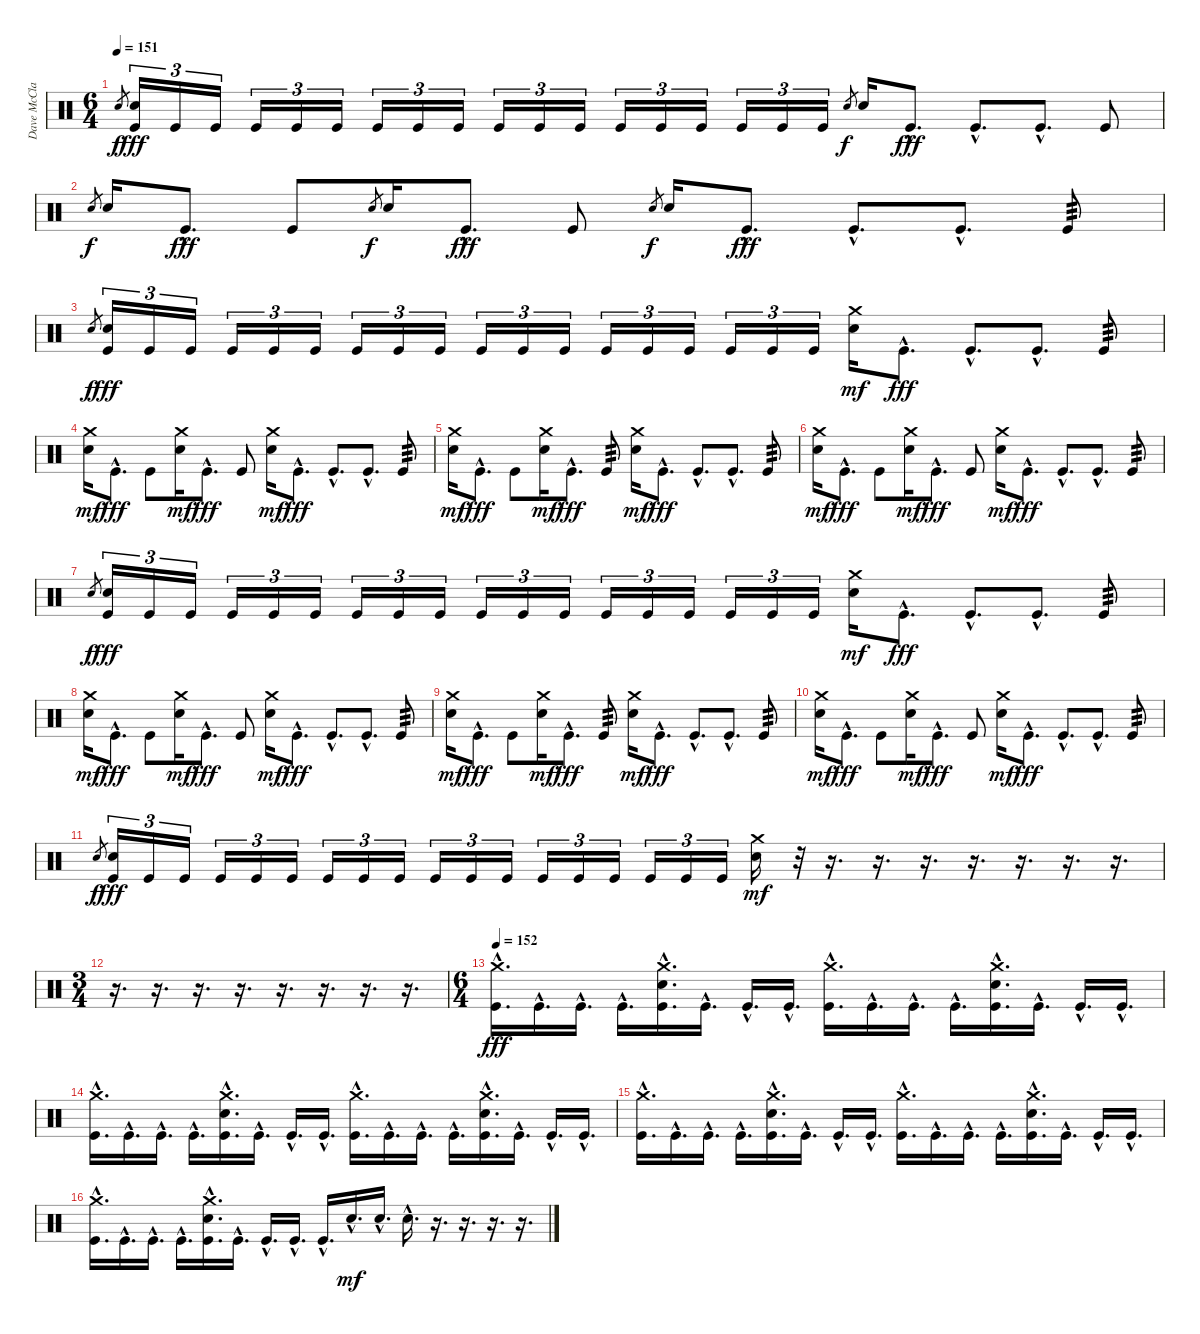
\track ("Dave McClain" "Dave McCla") {instrument percussion}
\staff {score}
\articulation defaults
\ts (6 4)
\tempo 151
\clef neutral
\ks c "Electric Snare (hit)".8{gr dy f}
("Electric Snare (hit)" "Kick (hit)").16{tu (3 2) dy fff} "Kick (hit)".16{tu (3 2)} "Kick (hit)".16{tu (3 2)} "Kick (hit)".16{tu (3 2)} "Kick (hit)".16{tu (3 2)} "Kick (hit)".16{tu (3 2)} "Kick (hit)".16{tu (3 2)} "Kick (hit)".16{tu (3 2)} "Kick (hit)".16{tu (3 2)} "Kick (hit)".16{tu (3 2)} "Kick (hit)".16{tu (3 2)} "Kick (hit)".16{tu (3 2)} "Kick (hit)".16{tu (3 2)} "Kick (hit)".16{tu (3 2)} "Kick (hit)".16{tu (3 2)} "Kick (hit)".16{tu (3 2)} "Kick (hit)".16{tu (3 2)} "Kick (hit)".16{tu (3 2)} "Electric Snare (hit)".8{gr dy f} "Electric Snare (hit)".16 "Kick (hit)"{hac}.8{d dy fff} "Kick (hit)"{hac}.8{d} "Kick (hit)"{hac}.8{d} "Kick (hit)".8 |
"Electric Snare (hit)".8{gr dy f} "Electric Snare (hit)".16 "Kick (hit)"{hac}.8{d dy fff} "Kick (hit)".8 "Electric Snare (hit)".8{gr dy f} "Electric Snare (hit)".16 "Kick (hit)"{hac}.8{d dy fff} "Kick (hit)".8 "Electric Snare (hit)".8{gr dy f} "Electric Snare (hit)".16 "Kick (hit)"{hac}.8{d dy fff} "Kick (hit)"{hac}.8{d} "Kick (hit)"{hac}.8{d} "Kick (hit)".8{tp 3} |
"Electric Snare (hit)".8{gr dy f} ("Electric Snare (hit)" "Kick (hit)").16{tu (3 2) dy fff} "Kick (hit)".16{tu (3 2)} "Kick (hit)".16{tu (3 2)} "Kick (hit)".16{tu (3 2)} "Kick (hit)".16{tu (3 2)} "Kick (hit)".16{tu (3 2)} "Kick (hit)".16{tu (3 2)} "Kick (hit)".16{tu (3 2)} "Kick (hit)".16{tu (3 2)} "Kick (hit)".16{tu (3 2)} "Kick (hit)".16{tu (3 2)} "Kick (hit)".16{tu (3 2)} "Kick (hit)".16{tu (3 2)} "Kick (hit)".16{tu (3 2)} "Kick (hit)".16{tu (3 2)} "Kick (hit)".16{tu (3 2)} "Kick (hit)".16{tu (3 2)} "Kick (hit)".16{tu (3 2)} ("Crash medium (hit)" "Electric Snare (hit)").16{dy mf} "Kick (hit)"{hac}.8{d dy fff} "Kick (hit)"{hac}.8{d} "Kick (hit)"{hac}.8{d} "Kick (hit)".8{tp 3} |
("Crash medium (hit)" "Electric Snare (hit)").16{dy mf} "Kick (hit)"{hac}.8{d dy fff} "Kick (hit)".8 ("Crash medium (hit)" "Electric Snare (hit)").16{dy mf} "Kick (hit)"{hac}.8{d dy fff} "Kick (hit)".8 ("Crash medium (hit)" "Electric Snare (hit)").16{dy mf} "Kick (hit)"{hac}.8{d dy fff} "Kick (hit)"{hac}.8{d} "Kick (hit)"{hac}.8{d} "Kick (hit)".8{tp 3} |
("Crash medium (hit)" "Electric Snare (hit)").16{dy mf} "Kick (hit)"{hac}.8{d dy fff} "Kick (hit)".8 ("Crash medium (hit)" "Electric Snare (hit)").16{dy mf} "Kick (hit)"{hac}.8{d dy fff} "Kick (hit)".8{tp 3} ("Crash medium (hit)" "Electric Snare (hit)").16{dy mf} "Kick (hit)"{hac}.8{d dy fff} "Kick (hit)"{hac}.8{d} "Kick (hit)"{hac}.8{d} "Kick (hit)".8{tp 3} |
("Crash medium (hit)" "Electric Snare (hit)").16{dy mf} "Kick (hit)"{hac}.8{d dy fff} "Kick (hit)".8 ("Crash medium (hit)" "Electric Snare (hit)").16{dy mf} "Kick (hit)"{hac}.8{d dy fff} "Kick (hit)".8 ("Crash medium (hit)" "Electric Snare (hit)").16{dy mf} "Kick (hit)"{hac}.8{d dy fff} "Kick (hit)"{hac}.8{d} "Kick (hit)"{hac}.8{d} "Kick (hit)".8{tp 3} |
"Electric Snare (hit)".8{gr dy f} ("Electric Snare (hit)" "Kick (hit)").16{tu (3 2) dy fff} "Kick (hit)".16{tu (3 2)} "Kick (hit)".16{tu (3 2)} "Kick (hit)".16{tu (3 2)} "Kick (hit)".16{tu (3 2)} "Kick (hit)".16{tu (3 2)} "Kick (hit)".16{tu (3 2)} "Kick (hit)".16{tu (3 2)} "Kick (hit)".16{tu (3 2)} "Kick (hit)".16{tu (3 2)} "Kick (hit)".16{tu (3 2)} "Kick (hit)".16{tu (3 2)} "Kick (hit)".16{tu (3 2)} "Kick (hit)".16{tu (3 2)} "Kick (hit)".16{tu (3 2)} "Kick (hit)".16{tu (3 2)} "Kick (hit)".16{tu (3 2)} "Kick (hit)".16{tu (3 2)} ("Crash medium (hit)" "Electric Snare (hit)").16{dy mf} "Kick (hit)"{hac}.8{d dy fff} "Kick (hit)"{hac}.8{d} "Kick (hit)"{hac}.8{d} "Kick (hit)".8{tp 3} |
("Crash medium (hit)" "Electric Snare (hit)").16{dy mf} "Kick (hit)"{hac}.8{d dy fff} "Kick (hit)".8 ("Crash medium (hit)" "Electric Snare (hit)").16{dy mf} "Kick (hit)"{hac}.8{d dy fff} "Kick (hit)".8 ("Crash medium (hit)" "Electric Snare (hit)").16{dy mf} "Kick (hit)"{hac}.8{d dy fff} "Kick (hit)"{hac}.8{d} "Kick (hit)"{hac}.8{d} "Kick (hit)".8{tp 3} |
("Crash medium (hit)" "Electric Snare (hit)").16{dy mf} "Kick (hit)"{hac}.8{d dy fff} "Kick (hit)".8 ("Crash medium (hit)" "Electric Snare (hit)").16{dy mf} "Kick (hit)"{hac}.8{d dy fff} "Kick (hit)".8{tp 3} ("Crash medium (hit)" "Electric Snare (hit)").16{dy mf} "Kick (hit)"{hac}.8{d dy fff} "Kick (hit)"{hac}.8{d} "Kick (hit)"{hac}.8{d} "Kick (hit)".8{tp 3} |
("Crash medium (hit)" "Electric Snare (hit)").16{dy mf} "Kick (hit)"{hac}.8{d dy fff} "Kick (hit)".8 ("Crash medium (hit)" "Electric Snare (hit)").16{dy mf} "Kick (hit)"{hac}.8{d dy fff} "Kick (hit)".8 ("Crash medium (hit)" "Electric Snare (hit)").16{dy mf} "Kick (hit)"{hac}.8{d dy fff} "Kick (hit)"{hac}.8{d} "Kick (hit)"{hac}.8{d} "Kick (hit)".8{tp 3} |
"Electric Snare (hit)".8{gr dy f} ("Electric Snare (hit)" "Kick (hit)").16{tu (3 2) dy fff} "Kick (hit)".16{tu (3 2)} "Kick (hit)".16{tu (3 2)} "Kick (hit)".16{tu (3 2)} "Kick (hit)".16{tu (3 2)} "Kick (hit)".16{tu (3 2)} "Kick (hit)".16{tu (3 2)} "Kick (hit)".16{tu (3 2)} "Kick (hit)".16{tu (3 2)} "Kick (hit)".16{tu (3 2)} "Kick (hit)".16{tu (3 2)} "Kick (hit)".16{tu (3 2)} "Kick (hit)".16{tu (3 2)} "Kick (hit)".16{tu (3 2)} "Kick (hit)".16{tu (3 2)} "Kick (hit)".16{tu (3 2)} "Kick (hit)".16{tu (3 2)} "Kick (hit)".16{tu (3 2)} ("Crash medium (hit)" "Electric Snare (hit)").16{dy mf} r.32 r.16{d} r.16{d} r.16{d} r.16{d} r.16{d} r.16{d} r.16{d} |
\ts (3 4)
r.16{d} r.16{d} r.16{d} r.16{d} r.16{d} r.16{d} r.16{d} r.16{d} |
\ts (6 4)
\tempo 152
("Crash medium (hit)"{hac} "Kick (hit)"{hac}).16{d dy fff} "Kick (hit)"{hac}.16{d} "Kick (hit)"{hac}.16{d} "Kick (hit)"{hac}.16{d} ("Crash medium (hit)"{hac} "Electric Snare (hit)"{hac} "Kick (hit)"{hac}).16{d} "Kick (hit)"{hac}.16{d} "Kick (hit)"{hac}.16{d} "Kick (hit)"{hac}.16{d} ("Crash medium (hit)"{hac} "Kick (hit)"{hac}).16{d} "Kick (hit)"{hac}.16{d} "Kick (hit)"{hac}.16{d} "Kick (hit)"{hac}.16{d} ("Crash medium (hit)"{hac} "Electric Snare (hit)"{hac} "Kick (hit)"{hac}).16{d} "Kick (hit)"{hac}.16{d} "Kick (hit)"{hac}.16{d} "Kick (hit)"{hac}.16{d} |
("Crash medium (hit)"{hac} "Kick (hit)"{hac}).16{d} "Kick (hit)"{hac}.16{d} "Kick (hit)"{hac}.16{d} "Kick (hit)"{hac}.16{d} ("Crash medium (hit)"{hac} "Electric Snare (hit)"{hac} "Kick (hit)"{hac}).16{d} "Kick (hit)"{hac}.16{d} "Kick (hit)"{hac}.16{d} "Kick (hit)"{hac}.16{d} ("Crash medium (hit)"{hac} "Kick (hit)"{hac}).16{d} "Kick (hit)"{hac}.16{d} "Kick (hit)"{hac}.16{d} "Kick (hit)"{hac}.16{d} ("Crash medium (hit)"{hac} "Electric Snare (hit)"{hac} "Kick (hit)"{hac}).16{d} "Kick (hit)"{hac}.16{d} "Kick (hit)"{hac}.16{d} "Kick (hit)"{hac}.16{d} |
("Crash medium (hit)"{hac} "Kick (hit)"{hac}).16{d} "Kick (hit)"{hac}.16{d} "Kick (hit)"{hac}.16{d} "Kick (hit)"{hac}.16{d} ("Crash medium (hit)"{hac} "Electric Snare (hit)"{hac} "Kick (hit)"{hac}).16{d} "Kick (hit)"{hac}.16{d} "Kick (hit)"{hac}.16{d} "Kick (hit)"{hac}.16{d} ("Crash medium (hit)"{hac} "Kick (hit)"{hac}).16{d} "Kick (hit)"{hac}.16{d} "Kick (hit)"{hac}.16{d} "Kick (hit)"{hac}.16{d} ("Crash medium (hit)"{hac} "Electric Snare (hit)"{hac} "Kick (hit)"{hac}).16{d} "Kick (hit)"{hac}.16{d} "Kick (hit)"{hac}.16{d} "Kick (hit)"{hac}.16{d} |
("Crash medium (hit)"{hac} "Kick (hit)"{hac}).16{d} "Kick (hit)"{hac}.16{d} "Kick (hit)"{hac}.16{d} "Kick (hit)"{hac}.16{d} ("Crash medium (hit)"{hac} "Electric Snare (hit)"{hac} "Kick (hit)"{hac}).16{d} "Kick (hit)"{hac}.16{d} "Kick (hit)"{hac}.16{d} "Kick (hit)"{hac}.16{d} "Kick (hit)"{hac}.16{d} "Electric Snare (hit)"{hac}.16{d dy mf} "Electric Snare (hit)"{hac}.16{d} "Electric Snare (hit)"{hac}.16{d} r.16{d} r.16{d} r.16{d} r.16{d}
